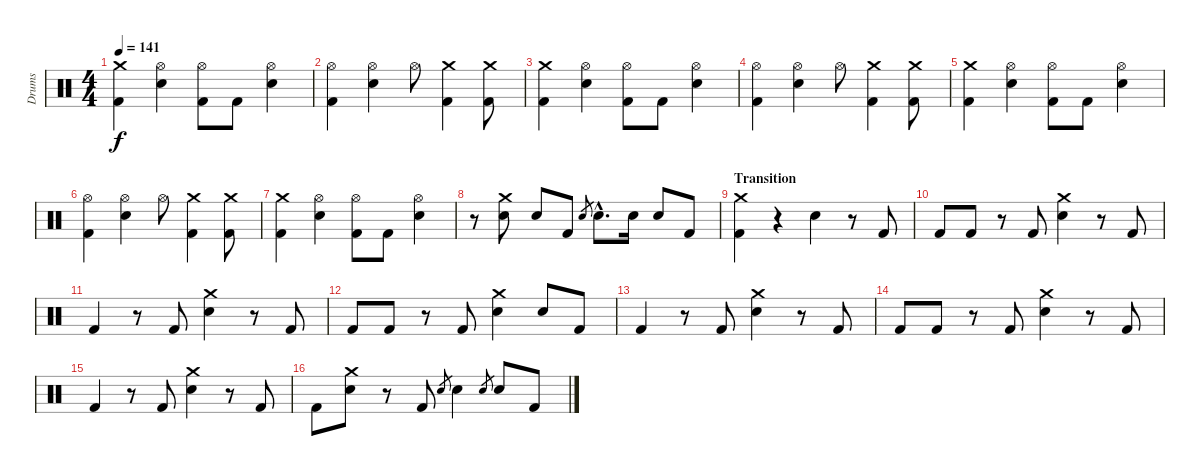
\track ("Drums" "Drums") {instrument percussion}
\staff {score}
\articulation defaults
\ts (4 4)
\tempo 141
\clef neutral
\ks c
("Crash medium (hit)" "Kick (hit) 2").4{dy f} ("Hi-Hat (open)" "Electric Snare (hit)").4 ("Hi-Hat (open)" "Kick (hit) 2").8 "Kick (hit) 2".8 ("Hi-Hat (open)" "Electric Snare (hit)").4 |
("Hi-Hat (open)" "Kick (hit) 2").4 ("Hi-Hat (open)" "Electric Snare (hit)").4 "Hi-Hat (open)".8 ("Crash medium (hit)" "Kick (hit) 2").4 ("Crash medium (hit)" "Kick (hit) 2").8 |
("Crash medium (hit)" "Kick (hit) 2").4 ("Hi-Hat (open)" "Electric Snare (hit)").4 ("Hi-Hat (open)" "Kick (hit) 2").8 "Kick (hit) 2".8 ("Hi-Hat (open)" "Electric Snare (hit)").4 |
("Hi-Hat (open)" "Kick (hit) 2").4 ("Hi-Hat (open)" "Electric Snare (hit)").4 "Hi-Hat (open)".8 ("Crash medium (hit)" "Kick (hit) 2").4 ("Crash medium (hit)" "Kick (hit) 2").8 |
("Crash medium (hit)" "Kick (hit) 2").4 ("Hi-Hat (open)" "Electric Snare (hit)").4 ("Hi-Hat (open)" "Kick (hit) 2").8 "Kick (hit) 2".8 ("Hi-Hat (open)" "Electric Snare (hit)").4 |
("Hi-Hat (open)" "Kick (hit) 2").4 ("Hi-Hat (open)" "Electric Snare (hit)").4 "Hi-Hat (open)".8 ("Crash medium (hit)" "Kick (hit) 2").4 ("Crash medium (hit)" "Kick (hit) 2").8 |
("Crash medium (hit)" "Kick (hit) 2").4 ("Hi-Hat (open)" "Electric Snare (hit)").4 ("Hi-Hat (open)" "Kick (hit) 2").8 "Kick (hit) 2".8 ("Hi-Hat (open)" "Electric Snare (hit)").4 |
r.8 ("Crash medium (hit)" "Electric Snare (hit)").8 "Electric Snare (hit)".8 "Kick (hit) 2".8 "Electric Snare (hit)".8{gr} "Electric Snare (hit)"{hac}.8{d} "Electric Snare (hit)".16 "Electric Snare (hit)".8 "Kick (hit) 2".8 |
\section ("" "Transition")
("Crash medium (hit)" "Kick (hit) 2").4 r.4 "Electric Snare (hit)".4 r.8 "Kick (hit) 2".8 |
"Kick (hit) 2".8 "Kick (hit) 2".8 r.8 "Kick (hit) 2".8 ("Crash medium (hit)" "Electric Snare (hit)").4 r.8 "Kick (hit) 2".8 |
"Kick (hit) 2".4 r.8 "Kick (hit) 2".8 ("Crash medium (hit)" "Electric Snare (hit)").4 r.8 "Kick (hit) 2".8 |
"Kick (hit) 2".8 "Kick (hit) 2".8 r.8 "Kick (hit) 2".8 ("Crash medium (hit)" "Electric Snare (hit)").4 "Electric Snare (hit)".8 "Kick (hit) 2".8 |
"Kick (hit) 2".4 r.8 "Kick (hit) 2".8 ("Crash medium (hit)" "Electric Snare (hit)").4 r.8 "Kick (hit) 2".8 |
"Kick (hit) 2".8 "Kick (hit) 2".8 r.8 "Kick (hit) 2".8 ("Crash medium (hit)" "Electric Snare (hit)").4 r.8 "Kick (hit) 2".8 |
"Kick (hit) 2".4 r.8 "Kick (hit) 2".8 ("Crash medium (hit)" "Electric Snare (hit)").4 r.8 "Kick (hit) 2".8 |
"Kick (hit) 2".8 ("Crash medium (hit)" "Electric Snare (hit)").8 r.8 "Kick (hit) 2".8 "Electric Snare (hit)".8{gr} "Electric Snare (hit)".4 "Electric Snare (hit)".8{gr} "Electric Snare (hit)".8 "Kick (hit) 2".8
